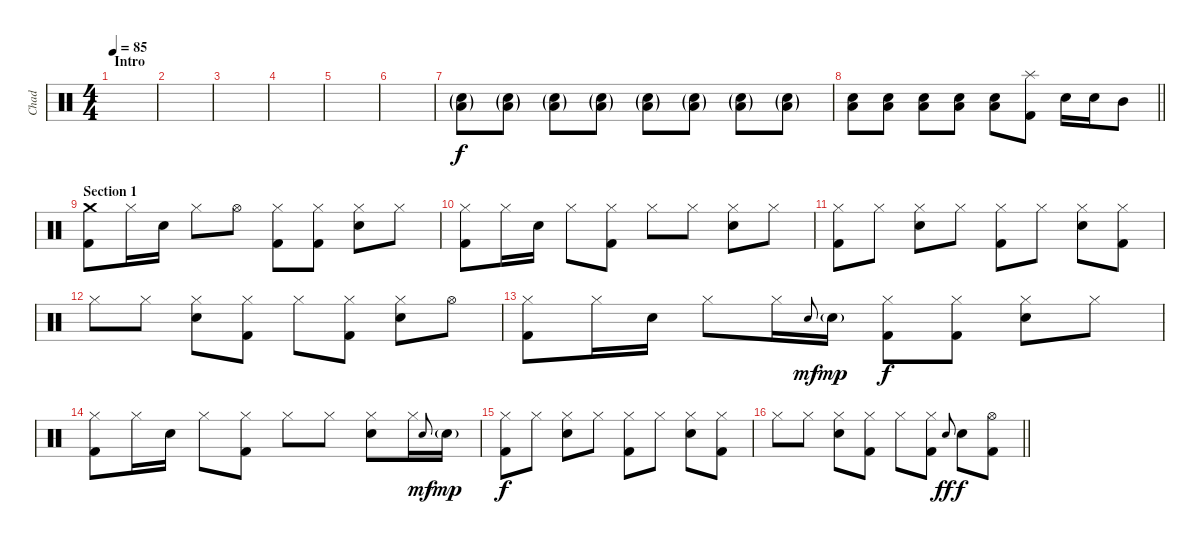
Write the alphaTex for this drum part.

\track ("Chad" "Chad") {instrument percussion}
\staff {score}
\articulation defaults
\ts (4 4)
\section ("" "Intro")
\tempo 85
\clef neutral
\ks c
|
|
|
|
|
|
("Low Tom (hit)"{g} "Electric Snare (hit)"{g}).8 ("Low Tom (hit)"{g} "Electric Snare (hit)"{g}).8 ("Low Tom (hit)"{g} "Electric Snare (hit)"{g}).8 ("Low Tom (hit)"{g} "Electric Snare (hit)"{g}).8 ("Low Tom (hit)"{g} "Electric Snare (hit)"{g}).8 ("Low Tom (hit)"{g} "Electric Snare (hit)"{g}).8 ("Low Tom (hit)"{g} "Electric Snare (hit)"{g}).8 ("Low Tom (hit)"{g} "Electric Snare (hit)"{g}).8 |
\barLineRight lightlight
("Low Tom (hit)" "Electric Snare (hit)").8{dy f} ("Low Tom (hit)" "Electric Snare (hit)").8 ("Low Tom (hit)" "Electric Snare (hit)").8 ("Low Tom (hit)" "Electric Snare (hit)").8 ("Low Tom (hit)" "Electric Snare (hit)").8 ("Kick (hit) 2" "Splash (hit)").8 "Electric Snare (hit)".16 "Electric Snare (hit)".16 "Mid Tom (hit)".8 |
\section ("" "Section 1")
("Crash medium (hit)" "Kick (hit) 2").8 "Hi-Hat (closed)".16 "Electric Snare (hit)".16 "Hi-Hat (closed)".8 "Hi-Hat (open)".8 ("Hi-Hat (closed)" "Kick (hit) 2").8 ("Hi-Hat (closed)" "Kick (hit) 2").8 ("Electric Snare (hit)" "Hi-Hat (closed)").8 "Hi-Hat (closed)".8 |
("Hi-Hat (closed)" "Kick (hit) 2").8 "Hi-Hat (closed)".16 "Electric Snare (hit)".16 "Hi-Hat (closed)".8 ("Hi-Hat (closed)" "Kick (hit) 2").8 "Hi-Hat (closed)".8 "Hi-Hat (closed)".8 ("Electric Snare (hit)" "Hi-Hat (closed)").8 "Hi-Hat (closed)".8 |
("Hi-Hat (closed)" "Kick (hit) 2").8 "Hi-Hat (closed)".8 ("Electric Snare (hit)" "Hi-Hat (closed)").8 "Hi-Hat (closed)".8 ("Hi-Hat (closed)" "Kick (hit) 2").8 "Hi-Hat (closed)".8 ("Electric Snare (hit)" "Hi-Hat (closed)").8 ("Hi-Hat (closed)" "Kick (hit) 2").8 |
"Hi-Hat (closed)".8 "Hi-Hat (closed)".8 ("Electric Snare (hit)" "Hi-Hat (closed)").8 ("Hi-Hat (closed)" "Kick (hit) 2").8 "Hi-Hat (closed)".8 ("Hi-Hat (closed)" "Kick (hit) 2").8 ("Electric Snare (hit)" "Hi-Hat (closed)").8 "Hi-Hat (open)".8 |
("Hi-Hat (closed)" "Kick (hit) 2").8 "Hi-Hat (closed)".16 "Electric Snare (hit)".16 "Hi-Hat (closed)".8 "Hi-Hat (closed)".16 "Electric Snare (hit)".8{gr onbeat dy mf} "Electric Snare (hit)"{g}.16{dy mp} ("Hi-Hat (closed)" "Kick (hit) 2").8{dy f} ("Hi-Hat (closed)" "Kick (hit) 2").8 ("Electric Snare (hit)" "Hi-Hat (closed)").8 "Hi-Hat (closed)".8 |
("Hi-Hat (closed)" "Kick (hit) 2").8 "Hi-Hat (closed)".16 "Electric Snare (hit)".16 "Hi-Hat (closed)".8 ("Hi-Hat (closed)" "Kick (hit) 2").8 "Hi-Hat (closed)".8 "Hi-Hat (closed)".8 ("Electric Snare (hit)" "Hi-Hat (closed)").8 "Hi-Hat (closed)".16 "Electric Snare (hit)".8{gr onbeat dy mf} "Electric Snare (hit)"{g}.16{dy mp} |
("Hi-Hat (closed)" "Kick (hit) 2").8{dy f} "Hi-Hat (closed)".8 ("Electric Snare (hit)" "Hi-Hat (closed)").8 "Hi-Hat (closed)".8 ("Hi-Hat (closed)" "Kick (hit) 2").8 "Hi-Hat (closed)".8 ("Electric Snare (hit)" "Hi-Hat (closed)").8 ("Hi-Hat (closed)" "Kick (hit) 2").8 |
\barLineRight lightlight "Hi-Hat (closed)".8 "Hi-Hat (closed)".8
("Electric Snare (hit)" "Hi-Hat (closed)").8 ("Hi-Hat (closed)" "Kick (hit) 2").8 "Hi-Hat (closed)".8 ("Hi-Hat (closed)" "Kick (hit) 2").8 "Electric Snare (hit)".8{gr onbeat dy ff} "Electric Snare (hit)".8{dy f} ("Hi-Hat (open)" "Kick (hit) 2").8
